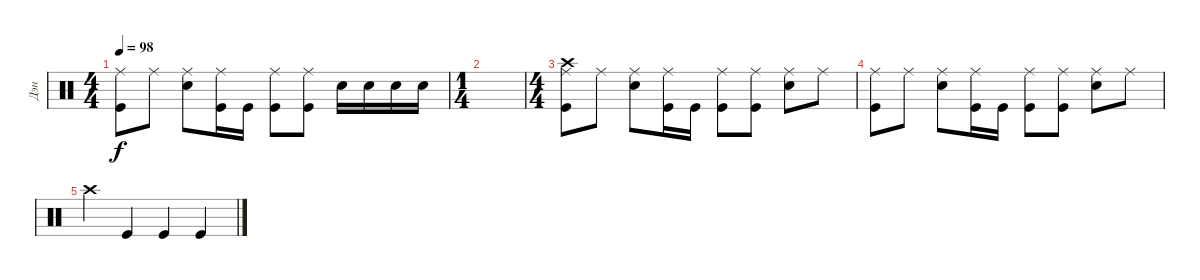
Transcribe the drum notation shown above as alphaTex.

\track ("Дэн" "Дэн") {instrument percussion}
\staff {score}
\articulation defaults
\ts (4 4)
\tempo 98
\clef neutral
\ks c
("Kick (hit)" "Ride (middle)").8{dy f} "Ride (middle)".8 ("Electric Snare (hit)" "Ride (middle)").8 ("Kick (hit)" "Ride (middle)").16 "Kick (hit)".16 ("Kick (hit)" "Ride (middle)").8 ("Kick (hit)" "Ride (middle)").8 "Electric Snare (hit)".16 "Electric Snare (hit)".16 "Electric Snare (hit)".16 "Electric Snare (hit)".16 |
\ts (1 4)
|
\ts (4 4)
("Kick (hit)" "Crash high (hit)" "Ride (middle)").8 "Ride (middle)".8 ("Electric Snare (hit)" "Ride (middle)").8 ("Kick (hit)" "Ride (middle)").16 "Kick (hit)".16 ("Kick (hit)" "Ride (middle)").8 ("Kick (hit)" "Ride (middle)").8 ("Electric Snare (hit)" "Ride (middle)").8 "Ride (middle)".8 |
("Kick (hit)" "Ride (middle)").8 "Ride (middle)".8 ("Electric Snare (hit)" "Ride (middle)").8 ("Kick (hit)" "Ride (middle)").16 "Kick (hit)".16 ("Kick (hit)" "Ride (middle)").8 ("Kick (hit)" "Ride (middle)").8 ("Electric Snare (hit)" "Ride (middle)").8 "Ride (middle)".8 |
"Crash high (hit)".4 "Kick (hit)".4 "Kick (hit)".4 "Kick (hit)".4
